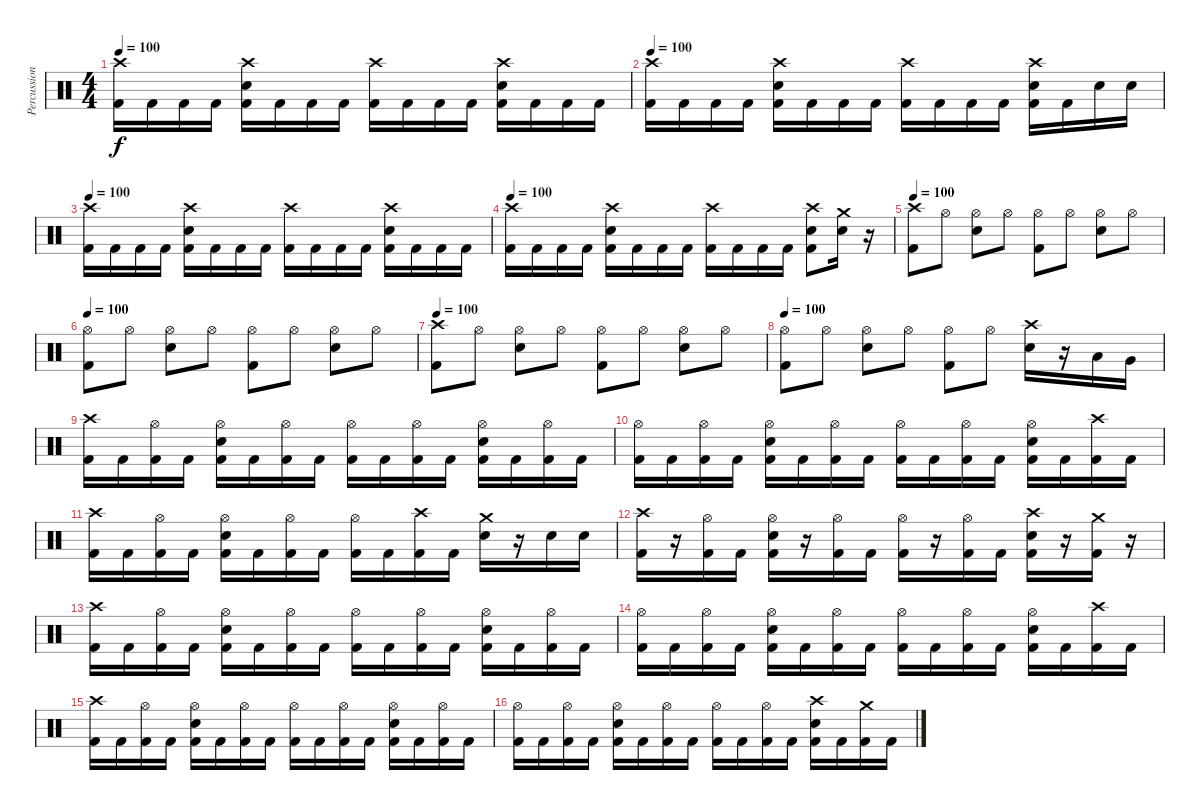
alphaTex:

\track ("Percussion" "Percussion") {instrument percussion}
\staff {score}
\articulation defaults
\ts (4 4)
\tempo 100
\clef neutral
\ks c
("Crash high (hit)" "Kick (hit) 2").16{dy f} "Kick (hit) 2".16 "Kick (hit) 2".16 "Kick (hit) 2".16 ("Crash high (hit)" "Snare (hit) 2" "Kick (hit) 2").16 "Kick (hit) 2".16 "Kick (hit) 2".16 "Kick (hit) 2".16 ("Crash high (hit)" "Kick (hit) 2").16 "Kick (hit) 2".16 "Kick (hit) 2".16 "Kick (hit) 2".16 ("Crash high (hit)" "Snare (hit) 2" "Kick (hit) 2").16 "Kick (hit) 2".16 "Kick (hit) 2".16 "Kick (hit) 2".16 |
\tempo 100
("Crash high (hit)" "Kick (hit) 2").16 "Kick (hit) 2".16 "Kick (hit) 2".16 "Kick (hit) 2".16 ("Crash high (hit)" "Snare (hit) 2" "Kick (hit) 2").16 "Kick (hit) 2".16 "Kick (hit) 2".16 "Kick (hit) 2".16 ("Crash high (hit)" "Kick (hit) 2").16 "Kick (hit) 2".16 "Kick (hit) 2".16 "Kick (hit) 2".16 ("Crash high (hit)" "Snare (hit) 2" "Kick (hit) 2").16 "Kick (hit) 2".16 "Snare (hit) 2".16 "Snare (hit) 2".16 |
\tempo 100
("Crash high (hit)" "Kick (hit) 2").16 "Kick (hit) 2".16 "Kick (hit) 2".16 "Kick (hit) 2".16 ("Crash high (hit)" "Snare (hit) 2" "Kick (hit) 2").16 "Kick (hit) 2".16 "Kick (hit) 2".16 "Kick (hit) 2".16 ("Crash high (hit)" "Kick (hit) 2").16 "Kick (hit) 2".16 "Kick (hit) 2".16 "Kick (hit) 2".16 ("Crash high (hit)" "Snare (hit) 2" "Kick (hit) 2").16 "Kick (hit) 2".16 "Kick (hit) 2".16 "Kick (hit) 2".16 |
\tempo 100
("Crash high (hit)" "Kick (hit) 2").16 "Kick (hit) 2".16 "Kick (hit) 2".16 "Kick (hit) 2".16 ("Crash high (hit)" "Snare (hit) 2" "Kick (hit) 2").16 "Kick (hit) 2".16 "Kick (hit) 2".16 "Kick (hit) 2".16 ("Crash high (hit)" "Kick (hit) 2").16 "Kick (hit) 2".16 "Kick (hit) 2".16 "Kick (hit) 2".16 ("Crash high (hit)" "Snare (hit) 2" "Kick (hit) 2").8 ("Crash medium (hit)" "Snare (hit) 2").16 r.16 |
\tempo 100
("Crash high (hit)" "Kick (hit) 2").8 "Hi-Hat (open)".8 ("Hi-Hat (open)" "Snare (hit) 2").8 "Hi-Hat (open)".8 ("Hi-Hat (open)" "Kick (hit) 2").8 "Hi-Hat (open)".8 ("Hi-Hat (open)" "Snare (hit) 2").8 "Hi-Hat (open)".8 |
\tempo 100
("Hi-Hat (open)" "Kick (hit) 2").8 "Hi-Hat (open)".8 ("Hi-Hat (open)" "Snare (hit) 2").8 "Hi-Hat (open)".8 ("Hi-Hat (open)" "Kick (hit) 2").8 "Hi-Hat (open)".8 ("Hi-Hat (open)" "Snare (hit) 2").8 "Hi-Hat (open)".8 |
\tempo 100
("Crash high (hit)" "Kick (hit) 2").8 "Hi-Hat (open)".8 ("Hi-Hat (open)" "Snare (hit) 2").8 "Hi-Hat (open)".8 ("Hi-Hat (open)" "Kick (hit) 2").8 "Hi-Hat (open)".8 ("Hi-Hat (open)" "Snare (hit) 2").8 "Hi-Hat (open)".8 |
\tempo 100
("Hi-Hat (open)" "Kick (hit) 2").8 "Hi-Hat (open)".8 ("Hi-Hat (open)" "Snare (hit) 2").8 "Hi-Hat (open)".8 ("Hi-Hat (open)" "Kick (hit) 2").8 "Hi-Hat (open)".8 ("Crash high (hit)" "Snare (hit) 2").16 r.16 "Low Tom (hit)".16 "Very Low Tom (hit)".16 |
("Crash high (hit)" "Kick (hit) 2").16 "Kick (hit) 2".16 ("Hi-Hat (open)" "Kick (hit) 2").16 "Kick (hit) 2".16 ("Hi-Hat (open)" "Snare (hit) 2" "Kick (hit) 2").16 "Kick (hit) 2".16 ("Hi-Hat (open)" "Kick (hit) 2").16 "Kick (hit) 2".16 ("Hi-Hat (open)" "Kick (hit) 2").16 "Kick (hit) 2".16 ("Hi-Hat (open)" "Kick (hit) 2").16 "Kick (hit) 2".16 ("Hi-Hat (open)" "Snare (hit) 2" "Kick (hit) 2").16 "Kick (hit) 2".16 ("Hi-Hat (open)" "Kick (hit) 2").16 "Kick (hit) 2".16 |
("Hi-Hat (open)" "Kick (hit) 2").16 "Kick (hit) 2".16 ("Hi-Hat (open)" "Kick (hit) 2").16 "Kick (hit) 2".16 ("Hi-Hat (open)" "Snare (hit) 2" "Kick (hit) 2").16 "Kick (hit) 2".16 ("Hi-Hat (open)" "Kick (hit) 2").16 "Kick (hit) 2".16 ("Hi-Hat (open)" "Kick (hit) 2").16 "Kick (hit) 2".16 ("Hi-Hat (open)" "Kick (hit) 2").16 "Kick (hit) 2".16 ("Hi-Hat (open)" "Snare (hit) 2" "Kick (hit) 2").16 "Kick (hit) 2".16 ("Crash high (hit)" "Kick (hit) 2").16 "Kick (hit) 2".16 |
("Crash high (hit)" "Kick (hit) 2").16 "Kick (hit) 2".16 ("Hi-Hat (open)" "Kick (hit) 2").16 "Kick (hit) 2".16 ("Hi-Hat (open)" "Snare (hit) 2" "Kick (hit) 2").16 "Kick (hit) 2".16 ("Hi-Hat (open)" "Kick (hit) 2").16 "Kick (hit) 2".16 ("Hi-Hat (open)" "Kick (hit) 2").16 "Kick (hit) 2".16 ("Crash high (hit)" "Kick (hit) 2").16 "Kick (hit) 2".16 ("Crash medium (hit)" "Snare (hit) 2").16 r.16 "Snare (hit) 2".16 "Snare (hit) 2".16 |
("Crash high (hit)" "Kick (hit) 2").16 r.16 ("Hi-Hat (open)" "Kick (hit) 2").16 "Kick (hit) 2".16 ("Hi-Hat (open)" "Snare (hit) 2" "Kick (hit) 2").16 r.16 ("Hi-Hat (open)" "Kick (hit) 2").16 "Kick (hit) 2".16 ("Hi-Hat (open)" "Kick (hit) 2").16 r.16 ("Hi-Hat (open)" "Kick (hit) 2").16 "Kick (hit) 2".16 ("Crash high (hit)" "Snare (hit) 2" "Kick (hit) 2").16 r.16 ("Crash medium (hit)" "Kick (hit) 2").16 r.16 |
("Crash high (hit)" "Kick (hit) 2").16 "Kick (hit) 2".16 ("Hi-Hat (open)" "Kick (hit) 2").16 "Kick (hit) 2".16 ("Hi-Hat (open)" "Snare (hit) 2" "Kick (hit) 2").16 "Kick (hit) 2".16 ("Hi-Hat (open)" "Kick (hit) 2").16 "Kick (hit) 2".16 ("Hi-Hat (open)" "Kick (hit) 2").16 "Kick (hit) 2".16 ("Hi-Hat (open)" "Kick (hit) 2").16 "Kick (hit) 2".16 ("Hi-Hat (open)" "Snare (hit) 2" "Kick (hit) 2").16 "Kick (hit) 2".16 ("Hi-Hat (open)" "Kick (hit) 2").16 "Kick (hit) 2".16 |
("Hi-Hat (open)" "Kick (hit) 2").16 "Kick (hit) 2".16 ("Hi-Hat (open)" "Kick (hit) 2").16 "Kick (hit) 2".16 ("Hi-Hat (open)" "Snare (hit) 2" "Kick (hit) 2").16 "Kick (hit) 2".16 ("Hi-Hat (open)" "Kick (hit) 2").16 "Kick (hit) 2".16 ("Hi-Hat (open)" "Kick (hit) 2").16 "Kick (hit) 2".16 ("Hi-Hat (open)" "Kick (hit) 2").16 "Kick (hit) 2".16 ("Hi-Hat (open)" "Snare (hit) 2" "Kick (hit) 2").16 "Kick (hit) 2".16 ("Crash high (hit)" "Kick (hit) 2").16 "Kick (hit) 2".16 |
("Crash high (hit)" "Kick (hit) 2").16 "Kick (hit) 2".16 ("Hi-Hat (open)" "Kick (hit) 2").16 "Kick (hit) 2".16 ("Hi-Hat (open)" "Snare (hit) 2" "Kick (hit) 2").16 "Kick (hit) 2".16 ("Hi-Hat (open)" "Kick (hit) 2").16 "Kick (hit) 2".16 ("Hi-Hat (open)" "Kick (hit) 2").16 "Kick (hit) 2".16 ("Hi-Hat (open)" "Kick (hit) 2").16 "Kick (hit) 2".16 ("Hi-Hat (open)" "Snare (hit) 2" "Kick (hit) 2").16 "Kick (hit) 2".16 ("Hi-Hat (open)" "Kick (hit) 2").16 "Kick (hit) 2".16 |
("Hi-Hat (open)" "Kick (hit) 2").16 "Kick (hit) 2".16 ("Hi-Hat (open)" "Kick (hit) 2").16 "Kick (hit) 2".16 ("Hi-Hat (open)" "Snare (hit) 2" "Kick (hit) 2").16 "Kick (hit) 2".16 ("Hi-Hat (open)" "Kick (hit) 2").16 "Kick (hit) 2".16 ("Hi-Hat (open)" "Kick (hit) 2").16 "Kick (hit) 2".16 ("Hi-Hat (open)" "Kick (hit) 2").16 "Kick (hit) 2".16 ("Crash high (hit)" "Snare (hit) 2" "Kick (hit) 2").16 "Kick (hit) 2".16 ("Crash medium (hit)" "Kick (hit) 2").16 "Kick (hit) 2".16
